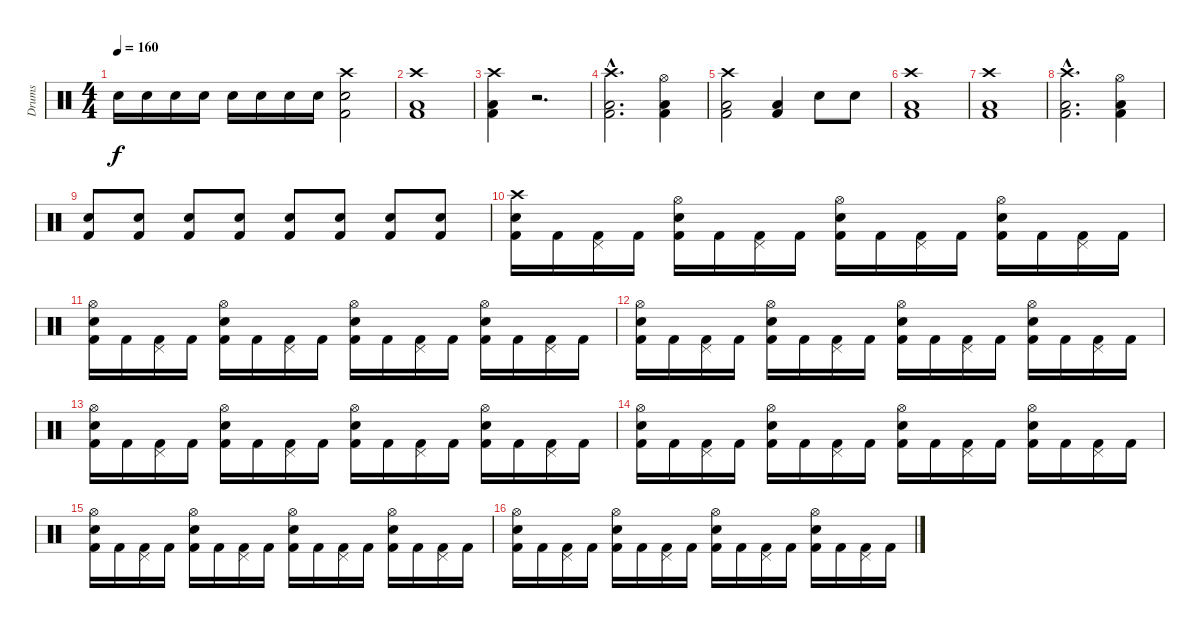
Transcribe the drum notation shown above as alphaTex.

\track ("Drums" "Drums") {instrument percussion}
\staff {score}
\articulation defaults
\ts (4 4)
\tempo 160
\clef neutral
\ks c "Snare (hit) 2".16{dy f} "Snare (hit) 2".16 "Snare (hit) 2".16 "Snare (hit) 2".16 "Snare (hit) 2".16 "Snare (hit) 2".16 "Snare (hit) 2".16 "Snare (hit) 2".16
("Crash high (hit)" "Electric Snare (hit)" "Kick (hit) 2").2 |
("Crash high (hit)" "Low Floor Tom (hit)" "Kick (hit) 2").1 |
("Crash high (hit)" "Low Floor Tom (hit)" "Kick (hit) 2").4 r.2{d} |
("Crash high (hit)"{hac} "Low Floor Tom (hit)"{hac} "Kick (hit) 2"{hac}).2{d} ("Hi-Hat (open)" "Low Floor Tom (hit)" "Kick (hit) 2").4 |
("Crash high (hit)" "Low Floor Tom (hit)" "Kick (hit) 2").2 ("Low Floor Tom (hit)" "Kick (hit) 2").4 "Snare (hit) 2".8 "Snare (hit) 2".8 |
("Crash high (hit)" "Low Floor Tom (hit)" "Kick (hit) 2").1 |
("Crash high (hit)" "Low Floor Tom (hit)" "Kick (hit) 2").1 |
("Crash high (hit)"{hac} "Low Floor Tom (hit)"{hac} "Kick (hit) 2"{hac}).2{d} ("Hi-Hat (open)" "Low Floor Tom (hit)" "Kick (hit) 2").4 |
("Snare (hit) 2" "Kick (hit) 2").8 ("Snare (hit) 2" "Kick (hit) 2").8 ("Snare (hit) 2" "Kick (hit) 2").8 ("Snare (hit) 2" "Kick (hit) 2").8 ("Snare (hit) 2" "Kick (hit) 2").8 ("Snare (hit) 2" "Kick (hit) 2").8 ("Snare (hit) 2" "Kick (hit) 2").8 ("Snare (hit) 2" "Kick (hit) 2").8 |
("Crash high (hit)" "Electric Snare (hit)" "Kick (hit) 2").16 "Kick (hit) 2".16 ("Pedal Hi-Hat (hit)" "Kick (hit) 2").16 "Kick (hit) 2".16 ("Hi-Hat (open)" "Snare (hit) 2" "Kick (hit) 2").16 "Kick (hit) 2".16 ("Pedal Hi-Hat (hit)" "Kick (hit) 2").16 "Kick (hit) 2".16 ("Hi-Hat (open)" "Electric Snare (hit)" "Kick (hit) 2").16 "Kick (hit) 2".16 ("Pedal Hi-Hat (hit)" "Kick (hit) 2").16 "Kick (hit) 2".16 ("Hi-Hat (open)" "Snare (hit) 2" "Kick (hit) 2").16 "Kick (hit) 2".16 ("Pedal Hi-Hat (hit)" "Kick (hit) 2").16 "Kick (hit) 2".16 |
("Hi-Hat (open)" "Electric Snare (hit)" "Kick (hit) 2").16 "Kick (hit) 2".16 ("Pedal Hi-Hat (hit)" "Kick (hit) 2").16 "Kick (hit) 2".16 ("Hi-Hat (open)" "Snare (hit) 2" "Kick (hit) 2").16 "Kick (hit) 2".16 ("Pedal Hi-Hat (hit)" "Kick (hit) 2").16 "Kick (hit) 2".16 ("Hi-Hat (open)" "Electric Snare (hit)" "Kick (hit) 2").16 "Kick (hit) 2".16 ("Pedal Hi-Hat (hit)" "Kick (hit) 2").16 "Kick (hit) 2".16 ("Hi-Hat (open)" "Snare (hit) 2" "Kick (hit) 2").16 "Kick (hit) 2".16 ("Pedal Hi-Hat (hit)" "Kick (hit) 2").16 "Kick (hit) 2".16 |
("Hi-Hat (open)" "Electric Snare (hit)" "Kick (hit) 2").16 "Kick (hit) 2".16 ("Pedal Hi-Hat (hit)" "Kick (hit) 2").16 "Kick (hit) 2".16 ("Hi-Hat (open)" "Snare (hit) 2" "Kick (hit) 2").16 "Kick (hit) 2".16 ("Pedal Hi-Hat (hit)" "Kick (hit) 2").16 "Kick (hit) 2".16 ("Hi-Hat (open)" "Electric Snare (hit)" "Kick (hit) 2").16 "Kick (hit) 2".16 ("Pedal Hi-Hat (hit)" "Kick (hit) 2").16 "Kick (hit) 2".16 ("Hi-Hat (open)" "Snare (hit) 2" "Kick (hit) 2").16 "Kick (hit) 2".16 ("Pedal Hi-Hat (hit)" "Kick (hit) 2").16 "Kick (hit) 2".16 |
("Hi-Hat (open)" "Electric Snare (hit)" "Kick (hit) 2").16 "Kick (hit) 2".16 ("Pedal Hi-Hat (hit)" "Kick (hit) 2").16 "Kick (hit) 2".16 ("Hi-Hat (open)" "Snare (hit) 2" "Kick (hit) 2").16 "Kick (hit) 2".16 ("Pedal Hi-Hat (hit)" "Kick (hit) 2").16 "Kick (hit) 2".16 ("Hi-Hat (open)" "Electric Snare (hit)" "Kick (hit) 2").16 "Kick (hit) 2".16 ("Pedal Hi-Hat (hit)" "Kick (hit) 2").16 "Kick (hit) 2".16 ("Hi-Hat (open)" "Snare (hit) 2" "Kick (hit) 2").16 "Kick (hit) 2".16 ("Pedal Hi-Hat (hit)" "Kick (hit) 2").16 "Kick (hit) 2".16 |
("Hi-Hat (open)" "Electric Snare (hit)" "Kick (hit) 2").16 "Kick (hit) 2".16 ("Pedal Hi-Hat (hit)" "Kick (hit) 2").16 "Kick (hit) 2".16 ("Hi-Hat (open)" "Snare (hit) 2" "Kick (hit) 2").16 "Kick (hit) 2".16 ("Pedal Hi-Hat (hit)" "Kick (hit) 2").16 "Kick (hit) 2".16 ("Hi-Hat (open)" "Electric Snare (hit)" "Kick (hit) 2").16 "Kick (hit) 2".16 ("Pedal Hi-Hat (hit)" "Kick (hit) 2").16 "Kick (hit) 2".16 ("Hi-Hat (open)" "Snare (hit) 2" "Kick (hit) 2").16 "Kick (hit) 2".16 ("Pedal Hi-Hat (hit)" "Kick (hit) 2").16 "Kick (hit) 2".16 |
("Hi-Hat (open)" "Electric Snare (hit)" "Kick (hit) 2").16 "Kick (hit) 2".16 ("Pedal Hi-Hat (hit)" "Kick (hit) 2").16 "Kick (hit) 2".16 ("Hi-Hat (open)" "Snare (hit) 2" "Kick (hit) 2").16 "Kick (hit) 2".16 ("Pedal Hi-Hat (hit)" "Kick (hit) 2").16 "Kick (hit) 2".16 ("Hi-Hat (open)" "Electric Snare (hit)" "Kick (hit) 2").16 "Kick (hit) 2".16 ("Pedal Hi-Hat (hit)" "Kick (hit) 2").16 "Kick (hit) 2".16 ("Hi-Hat (open)" "Snare (hit) 2" "Kick (hit) 2").16 "Kick (hit) 2".16 ("Pedal Hi-Hat (hit)" "Kick (hit) 2").16 "Kick (hit) 2".16 |
("Hi-Hat (open)" "Electric Snare (hit)" "Kick (hit) 2").16 "Kick (hit) 2".16 ("Pedal Hi-Hat (hit)" "Kick (hit) 2").16 "Kick (hit) 2".16 ("Hi-Hat (open)" "Snare (hit) 2" "Kick (hit) 2").16 "Kick (hit) 2".16 ("Pedal Hi-Hat (hit)" "Kick (hit) 2").16 "Kick (hit) 2".16 ("Hi-Hat (open)" "Electric Snare (hit)" "Kick (hit) 2").16 "Kick (hit) 2".16 ("Pedal Hi-Hat (hit)" "Kick (hit) 2").16 "Kick (hit) 2".16 ("Hi-Hat (open)" "Snare (hit) 2" "Kick (hit) 2").16 "Kick (hit) 2".16 ("Pedal Hi-Hat (hit)" "Kick (hit) 2").16 "Kick (hit) 2".16
